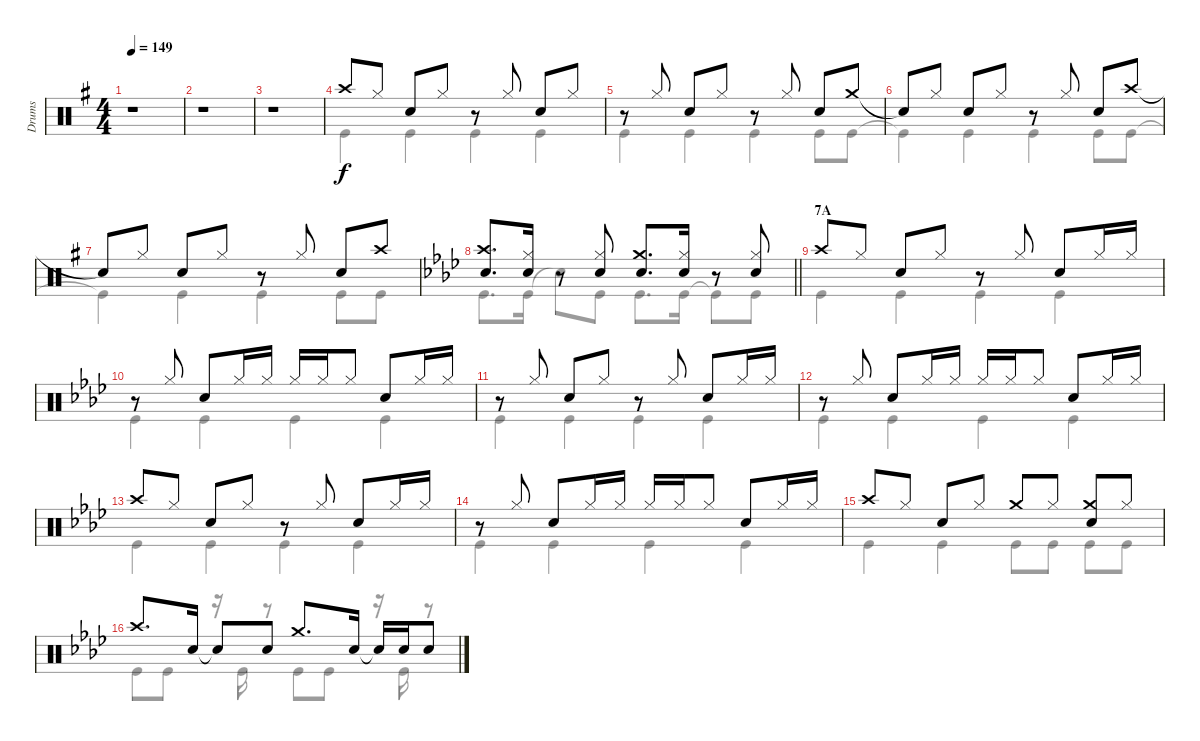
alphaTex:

\track ("Drums" "Drums") {instrument percussion}
\staff {score}
\articulation defaults
\voice
\ts (4 4)
\tempo 149
\clef neutral
\ks g
r.1{dy f} |
r.1 |
r.1 |
"Crash high (hit)".8 "Hi-Hat (closed)".8 "Snare (hit) 2".8 "Hi-Hat (closed)".8 r.8 "Hi-Hat (closed)".8 "Snare (hit) 2".8 "Hi-Hat (closed)".8 |
r.8 "Hi-Hat (closed)".8 "Snare (hit) 2".8 "Hi-Hat (closed)".8 r.8 "Hi-Hat (closed)".8 "Snare (hit) 2".8 "Crash medium (hit)".8 |
"Snare (hit)"{t}.8 "Hi-Hat (closed)".8 "Snare (hit) 2".8 "Hi-Hat (closed)".8 r.8 "Hi-Hat (closed)".8 "Snare (hit) 2".8 "Crash high (hit)".8 |
"Snare (hit)"{t}.8 "Hi-Hat (closed)".8 "Snare (hit) 2".8 "Hi-Hat (closed)".8 r.8 "Hi-Hat (closed)".8 "Snare (hit) 2".8 "Crash high (hit)".8 |
\barLineRight lightlight
\ks ab
("Crash high (hit)" "Snare (hit) 2").8{d} ("Hi-Hat (closed)" "Snare (hit) 2").16 r.8 ("Hi-Hat (closed)" "Snare (hit) 2").8 ("Crash medium (hit)" "Snare (hit) 2").8{d} ("Hi-Hat (closed)" "Snare (hit) 2").16 r.8 ("Hi-Hat (closed)" "Snare (hit) 2").8 |
\section ("" "7A")
"Crash high (hit)".8 "Hi-Hat (closed)".8 "Snare (hit) 2".8 "Hi-Hat (closed)".8 r.8 "Hi-Hat (closed)".8 "Snare (hit) 2".8 "Hi-Hat (closed)".16 "Hi-Hat (closed)".16 |
r.8 "Hi-Hat (closed)".8 "Snare (hit) 2".8 "Hi-Hat (closed)".16 "Hi-Hat (closed)".16 "Hi-Hat (closed)".16 "Hi-Hat (closed)".16 "Hi-Hat (closed)".8 "Snare (hit) 2".8 "Hi-Hat (closed)".16 "Hi-Hat (closed)".16 |
r.8 "Hi-Hat (closed)".8 "Snare (hit) 2".8 "Hi-Hat (closed)".8 r.8 "Hi-Hat (closed)".8 "Snare (hit) 2".8 "Hi-Hat (closed)".16 "Hi-Hat (closed)".16 |
r.8 "Hi-Hat (closed)".8 "Snare (hit) 2".8 "Hi-Hat (closed)".16 "Hi-Hat (closed)".16 "Hi-Hat (closed)".16 "Hi-Hat (closed)".16 "Hi-Hat (closed)".8 "Snare (hit) 2".8 "Hi-Hat (closed)".16 "Hi-Hat (closed)".16 |
"Crash high (hit)".8 "Hi-Hat (closed)".8 "Snare (hit) 2".8 "Hi-Hat (closed)".8 r.8 "Hi-Hat (closed)".8 "Snare (hit) 2".8 "Hi-Hat (closed)".16 "Hi-Hat (closed)".16 |
r.8 "Hi-Hat (closed)".8 "Snare (hit) 2".8 "Hi-Hat (closed)".16 "Hi-Hat (closed)".16 "Hi-Hat (closed)".16 "Hi-Hat (closed)".16 "Hi-Hat (closed)".8 "Snare (hit) 2".8 "Hi-Hat (closed)".16 "Hi-Hat (closed)".16 |
"Crash high (hit)".8 "Hi-Hat (closed)".8 "Snare (hit) 2".8 "Hi-Hat (closed)".8 "Crash medium (hit)".8 "Hi-Hat (closed)".8 ("Crash medium (hit)" "Snare (hit) 2").8 "Hi-Hat (closed)".8 |
"Crash high (hit)".8{d} "Snare (hit) 2".16 "Snare (hit)"{t}.8 "Snare (hit) 2".8 "Crash medium (hit)".8{d} "Snare (hit) 2".16 "Snare (hit)"{t}.16 "Snare (hit) 2".16 "Snare (hit) 2".8
\voice
\clef neutral
\ottava regular
\simile none
\ks g
r.1{dy f} |
r.1 |
r.1 |
"Kick (hit)".4 "Kick (hit)".4 "Kick (hit)".4 "Kick (hit)".4 |
"Kick (hit)".4 "Kick (hit)".4 "Kick (hit)".4 "Kick (hit)".8 "Kick (hit)".8 |
"Kick (hit)"{t}.4 "Kick (hit)".4 "Kick (hit)".4 "Kick (hit)".8 "Kick (hit)".8 |
"Kick (hit)"{t}.4 "Kick (hit)".4 "Kick (hit)".4 "Kick (hit)".8 "Kick (hit)".8 |
\barLineRight lightlight
\ks ab "Kick (hit)".8{d} "Kick (hit)".16 "Snare (hit)"{t}.8 "Kick (hit)".8 "Kick (hit)".8{d} "Kick (hit)".16 "Kick (hit)"{t}.8 "Kick (hit)".8
|
"Kick (hit)".4 "Kick (hit)".4 "Kick (hit)".4 "Kick (hit)".4 |
"Kick (hit)".4 "Kick (hit)".4 "Kick (hit)".4 "Kick (hit)".4 |
"Kick (hit)".4 "Kick (hit)".4 "Kick (hit)".4 "Kick (hit)".4 |
"Kick (hit)".4 "Kick (hit)".4 "Kick (hit)".4 "Kick (hit)".4 |
"Kick (hit)".4 "Kick (hit)".4 "Kick (hit)".4 "Kick (hit)".4 |
"Kick (hit)".4 "Kick (hit)".4 "Kick (hit)".4 "Kick (hit)".4 |
"Kick (hit)".4 "Kick (hit)".4 "Kick (hit)".8 "Kick (hit)".8 "Kick (hit)".8 "Kick (hit)".8 |
"Kick (hit)".8 "Kick (hit)".8 r.16 "Kick (hit)".16 r.8 "Kick (hit)".8 "Kick (hit)".8 r.16 "Kick (hit)".16 r.8
